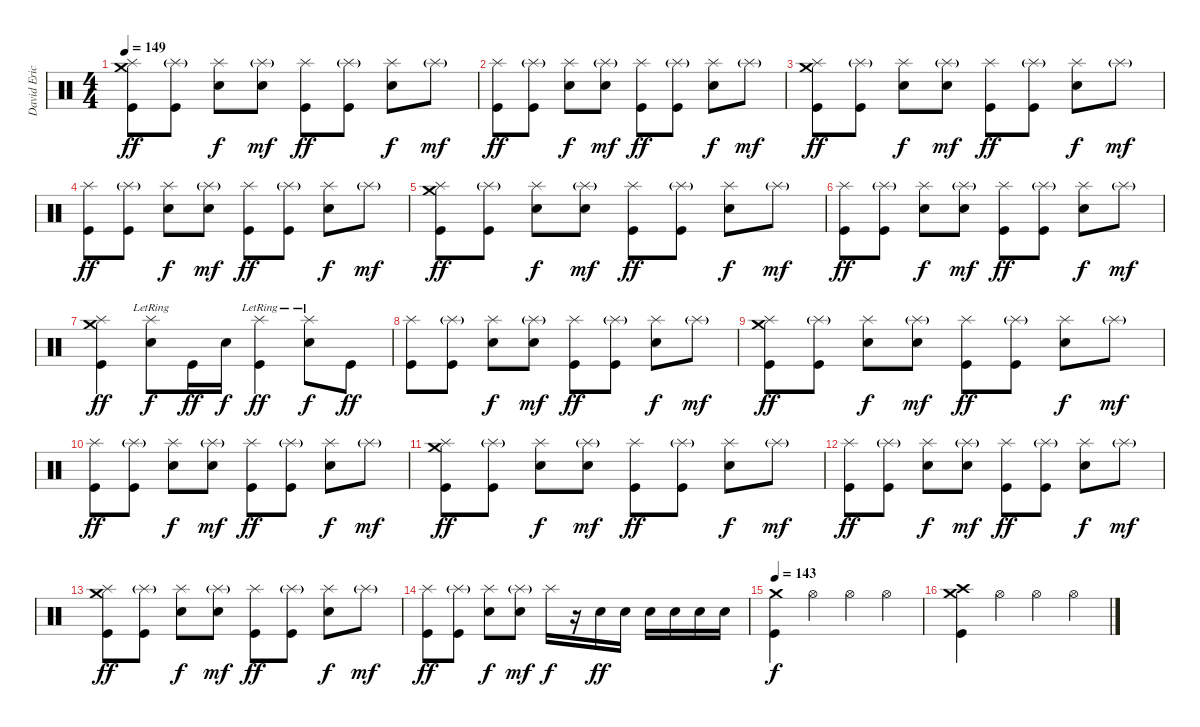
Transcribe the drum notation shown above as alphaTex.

\track ("David Eric Grohl" "David Eric") {instrument percussion}
\staff {score}
\articulation defaults
\ts (4 4)
\tempo 149
\clef neutral
\ks c
("Crash medium (hit)" "Splash (hit)" "Kick (hit)").8{dy ff} ("Splash (hit)"{g} "Kick (hit)").8 ("Splash (hit)" "Snare (hit) 2").8{dy f} ("Splash (hit)"{g} "Snare (hit) 2").8{dy mf} ("Splash (hit)" "Kick (hit)").8{dy ff} ("Splash (hit)"{g} "Kick (hit)").8 ("Splash (hit)" "Snare (hit) 2").8{dy f} "Splash (hit)"{g}.8{dy mf} |
("Splash (hit)" "Kick (hit)").8{dy ff} ("Splash (hit)"{g} "Kick (hit)").8 ("Splash (hit)" "Snare (hit) 2").8{dy f} ("Splash (hit)"{g} "Snare (hit) 2").8{dy mf} ("Splash (hit)" "Kick (hit)").8{dy ff} ("Splash (hit)"{g} "Kick (hit)").8 ("Splash (hit)" "Snare (hit) 2").8{dy f} "Splash (hit)"{g}.8{dy mf} |
("Crash medium (hit)" "Splash (hit)" "Kick (hit)").8{dy ff} ("Splash (hit)"{g} "Kick (hit)").8 ("Splash (hit)" "Snare (hit) 2").8{dy f} ("Splash (hit)"{g} "Snare (hit) 2").8{dy mf} ("Splash (hit)" "Kick (hit)").8{dy ff} ("Splash (hit)"{g} "Kick (hit)").8 ("Splash (hit)" "Snare (hit) 2").8{dy f} "Splash (hit)"{g}.8{dy mf} |
("Splash (hit)" "Kick (hit)").8{dy ff} ("Splash (hit)"{g} "Kick (hit)").8 ("Splash (hit)" "Snare (hit) 2").8{dy f} ("Splash (hit)"{g} "Snare (hit) 2").8{dy mf} ("Splash (hit)" "Kick (hit)").8{dy ff} ("Splash (hit)"{g} "Kick (hit)").8 ("Splash (hit)" "Snare (hit) 2").8{dy f} "Splash (hit)"{g}.8{dy mf} |
("Crash medium (hit)" "Splash (hit)" "Kick (hit)").8{dy ff} ("Splash (hit)"{g} "Kick (hit)").8 ("Splash (hit)" "Snare (hit) 2").8{dy f} ("Splash (hit)"{g} "Snare (hit) 2").8{dy mf} ("Splash (hit)" "Kick (hit)").8{dy ff} ("Splash (hit)"{g} "Kick (hit)").8 ("Splash (hit)" "Snare (hit) 2").8{dy f} "Splash (hit)"{g}.8{dy mf} |
("Splash (hit)" "Kick (hit)").8{dy ff} ("Splash (hit)"{g} "Kick (hit)").8 ("Splash (hit)" "Snare (hit) 2").8{dy f} ("Splash (hit)"{g} "Snare (hit) 2").8{dy mf} ("Splash (hit)" "Kick (hit)").8{dy ff} ("Splash (hit)"{g} "Kick (hit)").8 ("Splash (hit)" "Snare (hit) 2").8{dy f} "Splash (hit)"{g}.8{dy mf} |
("Crash medium (hit)" "Splash (hit)" "Kick (hit)").4{dy ff} ("Splash (hit)"{lr} "Snare (hit) 2").8{dy f} "Kick (hit)".16{dy ff} "Snare (hit) 2".16{dy f} ("Splash (hit)"{lr} "Kick (hit)").4{dy ff} ("Splash (hit)"{lr} "Snare (hit) 2").8{dy f} "Kick (hit)".8{dy ff} |
("Splash (hit)" "Kick (hit)").8 ("Splash (hit)"{g} "Kick (hit)").8 ("Splash (hit)" "Snare (hit) 2").8{dy f} ("Splash (hit)"{g} "Snare (hit) 2").8{dy mf} ("Splash (hit)" "Kick (hit)").8{dy ff} ("Splash (hit)"{g} "Kick (hit)").8 ("Splash (hit)" "Snare (hit) 2").8{dy f} "Splash (hit)"{g}.8{dy mf} |
("Crash medium (hit)" "Splash (hit)" "Kick (hit)").8{dy ff} ("Splash (hit)"{g} "Kick (hit)").8 ("Splash (hit)" "Snare (hit) 2").8{dy f} ("Splash (hit)"{g} "Snare (hit) 2").8{dy mf} ("Splash (hit)" "Kick (hit)").8{dy ff} ("Splash (hit)"{g} "Kick (hit)").8 ("Splash (hit)" "Snare (hit) 2").8{dy f} "Splash (hit)"{g}.8{dy mf} |
("Splash (hit)" "Kick (hit)").8{dy ff} ("Splash (hit)"{g} "Kick (hit)").8 ("Splash (hit)" "Snare (hit) 2").8{dy f} ("Splash (hit)"{g} "Snare (hit) 2").8{dy mf} ("Splash (hit)" "Kick (hit)").8{dy ff} ("Splash (hit)"{g} "Kick (hit)").8 ("Splash (hit)" "Snare (hit) 2").8{dy f} "Splash (hit)"{g}.8{dy mf} |
("Crash medium (hit)" "Splash (hit)" "Kick (hit)").8{dy ff} ("Splash (hit)"{g} "Kick (hit)").8 ("Splash (hit)" "Snare (hit) 2").8{dy f} ("Splash (hit)"{g} "Snare (hit) 2").8{dy mf} ("Splash (hit)" "Kick (hit)").8{dy ff} ("Splash (hit)"{g} "Kick (hit)").8 ("Splash (hit)" "Snare (hit) 2").8{dy f} "Splash (hit)"{g}.8{dy mf} |
("Splash (hit)" "Kick (hit)").8{dy ff} ("Splash (hit)"{g} "Kick (hit)").8 ("Splash (hit)" "Snare (hit) 2").8{dy f} ("Splash (hit)"{g} "Snare (hit) 2").8{dy mf} ("Splash (hit)" "Kick (hit)").8{dy ff} ("Splash (hit)"{g} "Kick (hit)").8 ("Splash (hit)" "Snare (hit) 2").8{dy f} "Splash (hit)"{g}.8{dy mf} |
("Crash medium (hit)" "Splash (hit)" "Kick (hit)").8{dy ff} ("Splash (hit)"{g} "Kick (hit)").8 ("Splash (hit)" "Snare (hit) 2").8{dy f} ("Splash (hit)"{g} "Snare (hit) 2").8{dy mf} ("Splash (hit)" "Kick (hit)").8{dy ff} ("Splash (hit)"{g} "Kick (hit)").8 ("Splash (hit)" "Snare (hit) 2").8{dy f} "Splash (hit)"{g}.8{dy mf} |
("Splash (hit)" "Kick (hit)").8{dy ff} ("Splash (hit)"{g} "Kick (hit)").8 ("Splash (hit)" "Snare (hit) 2").8{dy f} ("Splash (hit)"{g} "Snare (hit) 2").8{dy mf} "Splash (hit)".16{dy f} r.16 "Snare (hit) 2".16{dy ff} "Snare (hit) 2".16 "Snare (hit) 2".16 "Snare (hit) 2".16 "Snare (hit) 2".16 "Snare (hit) 2".16 |
\tempo 145
\tempo 143
("Crash medium (hit)" "Kick (hit)").4{dy f} "Hi-Hat (open)".4 "Hi-Hat (open)".4 "Hi-Hat (open)".4 |
("Crash medium (hit)" "Crash high (hit)" "Kick (hit)").4 "Hi-Hat (open)".4 "Hi-Hat (open)".4 "Hi-Hat (open)".4
